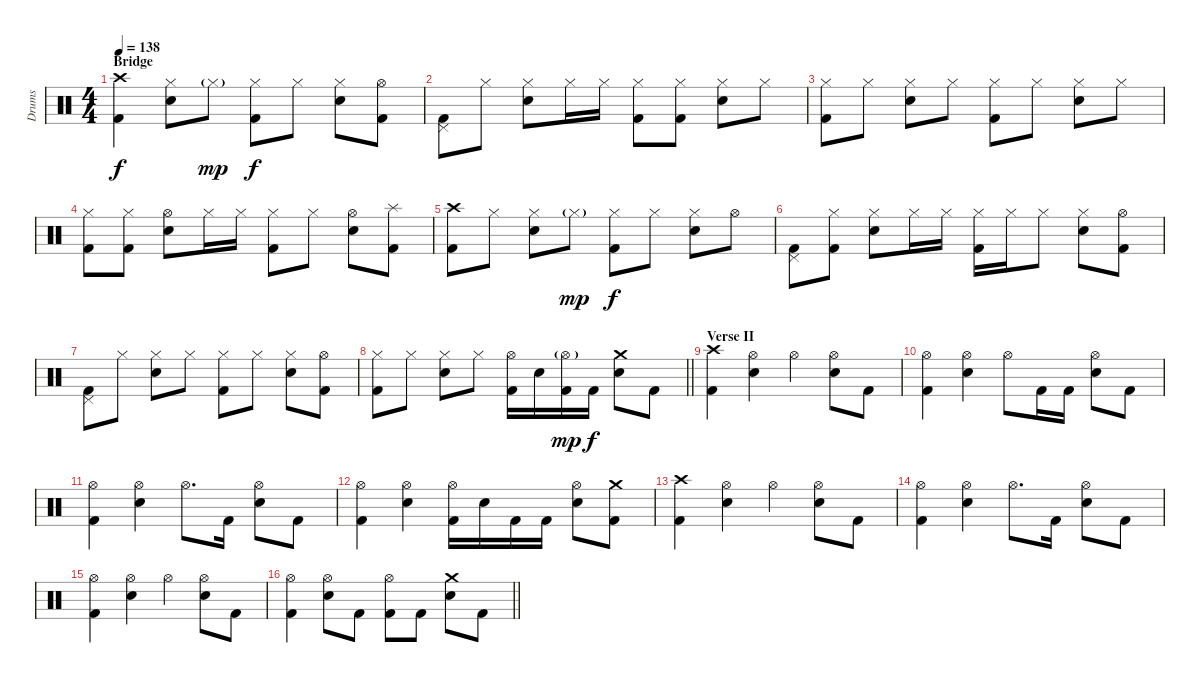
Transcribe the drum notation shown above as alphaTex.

\track ("Drums" "Drums") {instrument percussion}
\staff {score}
\articulation defaults
\ts (4 4)
\section ("" "Bridge")
\tempo 138
\clef neutral
\ks c
("Crash high (hit)" "Kick (hit) 2").4{dy f} ("Hi-Hat (closed)" "Electric Snare (hit)").8 "Hi-Hat (closed)"{g}.8{dy mp} ("Hi-Hat (closed)" "Kick (hit) 2").8{dy f} "Hi-Hat (closed)".8 ("Hi-Hat (closed)" "Electric Snare (hit)").8 ("Hi-Hat (open)" "Kick (hit) 2").8 |
("Pedal Hi-Hat (hit)" "Kick (hit) 2").8 "Hi-Hat (closed)".8 ("Hi-Hat (closed)" "Electric Snare (hit)").8 "Hi-Hat (closed)".16 "Hi-Hat (closed)".16 ("Hi-Hat (closed)" "Kick (hit) 2").8 ("Hi-Hat (closed)" "Kick (hit) 2").8 ("Hi-Hat (closed)" "Electric Snare (hit)").8 "Hi-Hat (closed)".8 |
("Hi-Hat (closed)" "Kick (hit) 2").8 "Hi-Hat (closed)".8 ("Hi-Hat (closed)" "Electric Snare (hit)").8 "Hi-Hat (closed)".8 ("Hi-Hat (closed)" "Kick (hit) 2").8 "Hi-Hat (closed)".8 ("Hi-Hat (closed)" "Electric Snare (hit)").8 "Hi-Hat (closed)".8 |
("Hi-Hat (closed)" "Kick (hit) 2").8 ("Hi-Hat (closed)" "Kick (hit) 2").8 ("Hi-Hat (open)" "Electric Snare (hit)").8 "Hi-Hat (closed)".16 "Hi-Hat (closed)".16 ("Hi-Hat (closed)" "Kick (hit) 2").8 "Hi-Hat (closed)".8 ("Hi-Hat (open)" "Electric Snare (hit)").8 ("Splash (hit)" "Kick (hit) 2").8 |
("Crash high (hit)" "Kick (hit) 2").8 "Hi-Hat (closed)".8 ("Hi-Hat (closed)" "Electric Snare (hit)").8 "Hi-Hat (closed)"{g}.8{dy mp} ("Hi-Hat (closed)" "Kick (hit) 2").8{dy f} "Hi-Hat (closed)".8 ("Hi-Hat (closed)" "Electric Snare (hit)").8 "Hi-Hat (open)".8 |
("Pedal Hi-Hat (hit)" "Kick (hit) 2").8 ("Hi-Hat (closed)" "Kick (hit) 2").8 ("Hi-Hat (closed)" "Electric Snare (hit)").8 "Hi-Hat (closed)".16 "Hi-Hat (closed)".16 ("Hi-Hat (closed)" "Kick (hit) 2").16 "Hi-Hat (closed)".16 "Hi-Hat (closed)".8 ("Hi-Hat (closed)" "Electric Snare (hit)").8 ("Hi-Hat (open)" "Kick (hit) 2").8 |
("Pedal Hi-Hat (hit)" "Kick (hit) 2").8 "Hi-Hat (closed)".8 ("Hi-Hat (closed)" "Electric Snare (hit)").8 "Hi-Hat (closed)".8 ("Hi-Hat (closed)" "Kick (hit) 2").8 "Hi-Hat (closed)".8 ("Hi-Hat (closed)" "Electric Snare (hit)").8 ("Hi-Hat (open)" "Kick (hit) 2").8 |
\barLineRight lightlight
("Hi-Hat (closed)" "Kick (hit) 2").8 "Hi-Hat (closed)".8 ("Hi-Hat (closed)" "Electric Snare (hit)").8 "Hi-Hat (closed)".8 ("Hi-Hat (open)" "Kick (hit) 2").16 "Electric Snare (hit)".16 ("Hi-Hat (open)"{g} "Kick (hit) 2").16{dy mp} "Kick (hit) 2".16{dy f} ("Crash medium (hit)" "Electric Snare (hit)").8 "Kick (hit) 2".8 |
\section ("" "Verse II")
("Crash high (hit)" "Kick (hit) 2").4 ("Hi-Hat (open)" "Electric Snare (hit)").4 "Hi-Hat (open)".4 ("Hi-Hat (open)" "Electric Snare (hit)").8 "Kick (hit) 2".8 |
("Hi-Hat (open)" "Kick (hit) 2").4 ("Hi-Hat (open)" "Electric Snare (hit)").4 "Hi-Hat (open)".8 "Kick (hit) 2".16 "Kick (hit) 2".16 ("Hi-Hat (open)" "Electric Snare (hit)").8 "Kick (hit) 2".8 |
("Hi-Hat (open)" "Kick (hit) 2").4 ("Hi-Hat (open)" "Electric Snare (hit)").4 "Hi-Hat (open)".8{d} "Kick (hit) 2".16 ("Hi-Hat (open)" "Electric Snare (hit)").8 "Kick (hit) 2".8 |
("Hi-Hat (open)" "Kick (hit) 2").4 ("Hi-Hat (open)" "Electric Snare (hit)").4 ("Hi-Hat (open)" "Kick (hit) 2").16 "Electric Snare (hit)".16 "Kick (hit) 2".16 "Kick (hit) 2".16 ("Hi-Hat (open)" "Electric Snare (hit)").8 ("Crash medium (hit)" "Kick (hit) 2").8 |
("Crash high (hit)" "Kick (hit) 2").4 ("Hi-Hat (open)" "Electric Snare (hit)").4 "Hi-Hat (open)".4 ("Hi-Hat (open)" "Electric Snare (hit)").8 "Kick (hit) 2".8 |
("Hi-Hat (open)" "Kick (hit) 2").4 ("Hi-Hat (open)" "Electric Snare (hit)").4 "Hi-Hat (open)".8{d} "Kick (hit) 2".16 ("Hi-Hat (open)" "Electric Snare (hit)").8 "Kick (hit) 2".8 |
("Hi-Hat (open)" "Kick (hit) 2").4 ("Hi-Hat (open)" "Electric Snare (hit)").4 "Hi-Hat (open)".4 ("Hi-Hat (open)" "Electric Snare (hit)").8 "Kick (hit) 2".8 |
\barLineRight lightlight
("Hi-Hat (open)" "Kick (hit) 2").4 ("Hi-Hat (open)" "Electric Snare (hit)").8 "Kick (hit) 2".8 ("Hi-Hat (open)" "Kick (hit) 2").8 "Kick (hit) 2".8 ("Crash medium (hit)" "Electric Snare (hit)").8 "Kick (hit) 2".8
